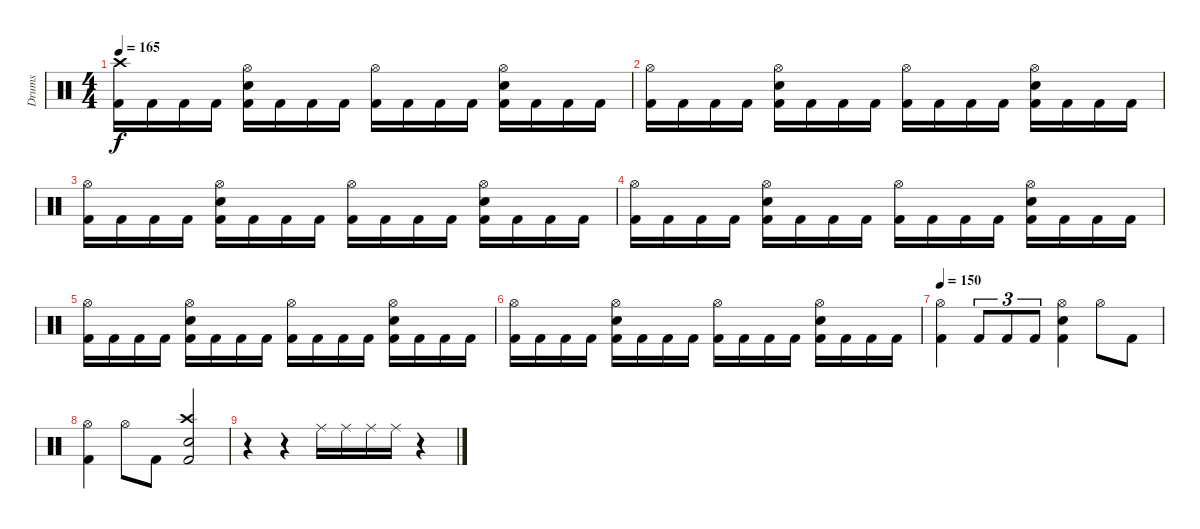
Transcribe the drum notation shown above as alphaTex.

\track ("Drums" "Drums") {instrument percussion}
\staff {score}
\articulation defaults
\ts (4 4)
\tempo 165
\clef neutral
\ks c
("Kick (hit) 2" "Crash high (hit)").16{dy f} "Kick (hit) 2".16 "Kick (hit) 2".16 "Kick (hit) 2".16 ("Kick (hit) 2" "Electric Snare (hit)" "Hi-Hat (open)").16 "Kick (hit) 2".16 "Kick (hit) 2".16 "Kick (hit) 2".16 ("Kick (hit) 2" "Hi-Hat (open)").16 "Kick (hit) 2".16 "Kick (hit) 2".16 "Kick (hit) 2".16 ("Kick (hit) 2" "Electric Snare (hit)" "Hi-Hat (open)").16 "Kick (hit) 2".16 "Kick (hit) 2".16 "Kick (hit) 2".16 |
("Kick (hit) 2" "Hi-Hat (open)").16 "Kick (hit) 2".16 "Kick (hit) 2".16 "Kick (hit) 2".16 ("Kick (hit) 2" "Electric Snare (hit)" "Hi-Hat (open)").16 "Kick (hit) 2".16 "Kick (hit) 2".16 "Kick (hit) 2".16 ("Kick (hit) 2" "Hi-Hat (open)").16 "Kick (hit) 2".16 "Kick (hit) 2".16 "Kick (hit) 2".16 ("Kick (hit) 2" "Electric Snare (hit)" "Hi-Hat (open)").16 "Kick (hit) 2".16 "Kick (hit) 2".16 "Kick (hit) 2".16 |
("Kick (hit) 2" "Hi-Hat (open)").16 "Kick (hit) 2".16 "Kick (hit) 2".16 "Kick (hit) 2".16 ("Kick (hit) 2" "Electric Snare (hit)" "Hi-Hat (open)").16 "Kick (hit) 2".16 "Kick (hit) 2".16 "Kick (hit) 2".16 ("Kick (hit) 2" "Hi-Hat (open)").16 "Kick (hit) 2".16 "Kick (hit) 2".16 "Kick (hit) 2".16 ("Kick (hit) 2" "Electric Snare (hit)" "Hi-Hat (open)").16 "Kick (hit) 2".16 "Kick (hit) 2".16 "Kick (hit) 2".16 |
("Kick (hit) 2" "Hi-Hat (open)").16 "Kick (hit) 2".16 "Kick (hit) 2".16 "Kick (hit) 2".16 ("Kick (hit) 2" "Electric Snare (hit)" "Hi-Hat (open)").16 "Kick (hit) 2".16 "Kick (hit) 2".16 "Kick (hit) 2".16 ("Kick (hit) 2" "Hi-Hat (open)").16 "Kick (hit) 2".16 "Kick (hit) 2".16 "Kick (hit) 2".16 ("Kick (hit) 2" "Electric Snare (hit)" "Hi-Hat (open)").16 "Kick (hit) 2".16 "Kick (hit) 2".16 "Kick (hit) 2".16 |
("Kick (hit) 2" "Hi-Hat (open)").16 "Kick (hit) 2".16 "Kick (hit) 2".16 "Kick (hit) 2".16 ("Kick (hit) 2" "Electric Snare (hit)" "Hi-Hat (open)").16 "Kick (hit) 2".16 "Kick (hit) 2".16 "Kick (hit) 2".16 ("Kick (hit) 2" "Hi-Hat (open)").16 "Kick (hit) 2".16 "Kick (hit) 2".16 "Kick (hit) 2".16 ("Kick (hit) 2" "Electric Snare (hit)" "Hi-Hat (open)").16 "Kick (hit) 2".16 "Kick (hit) 2".16 "Kick (hit) 2".16 |
("Kick (hit) 2" "Hi-Hat (open)").16 "Kick (hit) 2".16 "Kick (hit) 2".16 "Kick (hit) 2".16 ("Kick (hit) 2" "Electric Snare (hit)" "Hi-Hat (open)").16 "Kick (hit) 2".16 "Kick (hit) 2".16 "Kick (hit) 2".16 ("Kick (hit) 2" "Hi-Hat (open)").16 "Kick (hit) 2".16 "Kick (hit) 2".16 "Kick (hit) 2".16 ("Kick (hit) 2" "Electric Snare (hit)" "Hi-Hat (open)").16 "Kick (hit) 2".16 "Kick (hit) 2".16 "Kick (hit) 2".16 |
\tempo 150
("Kick (hit) 2" "Hi-Hat (open)").4 "Kick (hit) 2".8{tu (3 2)} "Kick (hit) 2".8{tu (3 2)} "Kick (hit) 2".8{tu (3 2)} ("Kick (hit) 2" "Electric Snare (hit)" "Hi-Hat (open)").4 "Hi-Hat (open)".8 "Kick (hit) 2".8 |
("Kick (hit) 2" "Hi-Hat (open)").4 "Hi-Hat (open)".8 "Kick (hit) 2".8 ("Kick (hit) 2" "Electric Snare (hit)" "Crash high (hit)").2 |
r.4 r.4 "Ride (middle)".16 "Ride (middle)".16 "Ride (middle)".16 "Ride (middle)".16 r.4
